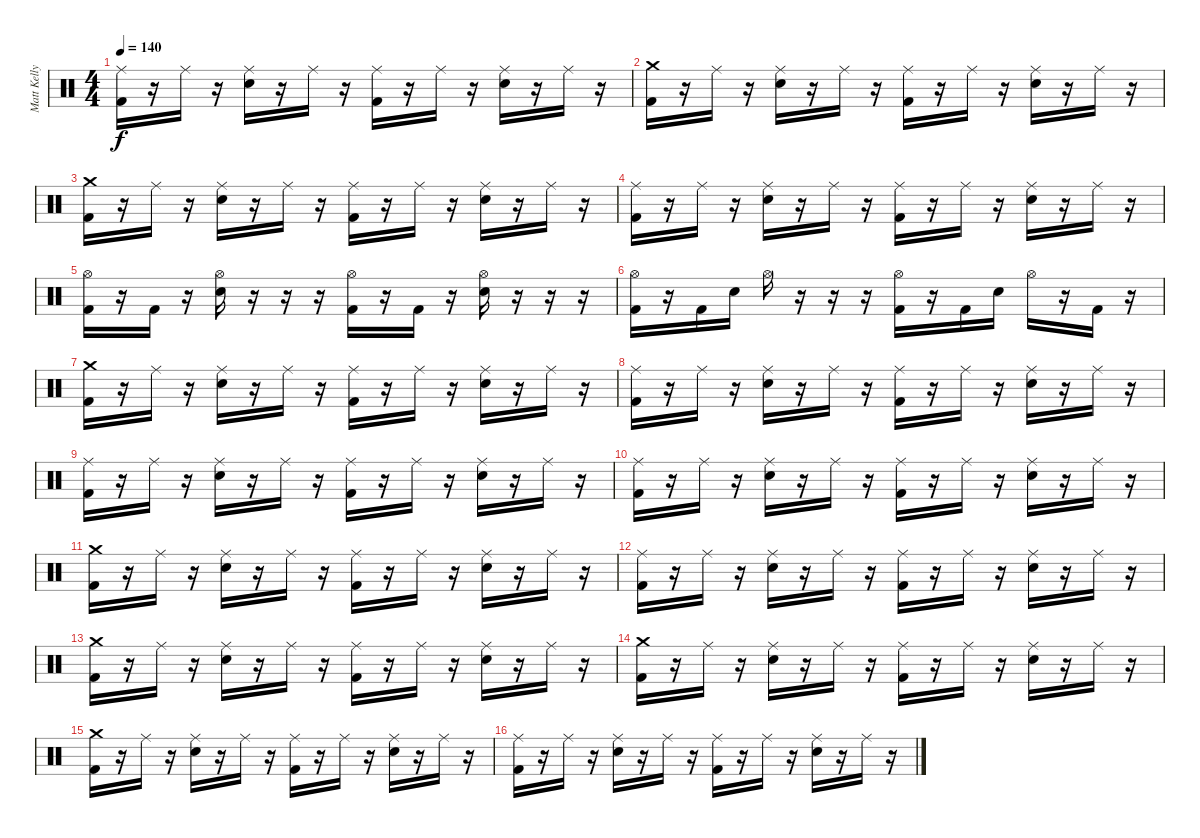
\track ("Matt Kelly" "Matt Kelly") {instrument percussion}
\staff {score}
\articulation defaults
\ts (4 4)
\tempo 140
\clef neutral
\ks c
("Ride (middle)" "Kick (hit) 2").16{dy f} r.16 "Ride (middle)".16 r.16 ("Ride (middle)" "Snare (hit) 2").16 r.16 "Ride (middle)".16 r.16 ("Ride (middle)" "Kick (hit) 2").16 r.16 "Ride (middle)".16 r.16 ("Ride (middle)" "Snare (hit) 2").16 r.16 "Ride (middle)".16 r.16 |
("Crash medium (hit)" "Kick (hit) 2").16 r.16 "Ride (middle)".16 r.16 ("Ride (middle)" "Snare (hit) 2").16 r.16 "Ride (middle)".16 r.16 ("Ride (middle)" "Kick (hit) 2").16 r.16 "Ride (middle)".16 r.16 ("Ride (middle)" "Snare (hit) 2").16 r.16 "Ride (middle)".16 r.16 |
("Crash medium (hit)" "Kick (hit) 2").16 r.16 "Ride (middle)".16 r.16 ("Ride (middle)" "Snare (hit) 2").16 r.16 "Ride (middle)".16 r.16 ("Ride (middle)" "Kick (hit) 2").16 r.16 "Ride (middle)".16 r.16 ("Ride (middle)" "Snare (hit) 2").16 r.16 "Ride (middle)".16 r.16 |
("Ride (middle)" "Kick (hit) 2").16 r.16 "Ride (middle)".16 r.16 ("Ride (middle)" "Snare (hit) 2").16 r.16 "Ride (middle)".16 r.16 ("Ride (middle)" "Kick (hit) 2").16 r.16 "Ride (middle)".16 r.16 ("Ride (middle)" "Snare (hit) 2").16 r.16 "Ride (middle)".16 r.16 |
("Hi-Hat (open)" "Kick (hit) 2").16 r.16 "Kick (hit) 2".16 r.16 ("Hi-Hat (open)" "Snare (hit) 2").16 r.16 r.16 r.16 ("Hi-Hat (open)" "Kick (hit) 2").16 r.16 "Kick (hit) 2".16 r.16 ("Hi-Hat (open)" "Snare (hit) 2").16 r.16 r.16 r.16 |
("Hi-Hat (open)" "Kick (hit) 2").16 r.16 "Kick (hit) 2".16 "Snare (hit) 2".16 "Hi-Hat (open)".16 r.16 r.16 r.16 ("Hi-Hat (open)" "Kick (hit) 2").16 r.16 "Kick (hit) 2".16 "Snare (hit) 2".16 "Hi-Hat (open)".16 r.16 "Kick (hit) 2".16 r.16 |
("Crash medium (hit)" "Kick (hit) 2").16 r.16 "Ride (middle)".16 r.16 ("Ride (middle)" "Snare (hit) 2").16 r.16 "Ride (middle)".16 r.16 ("Ride (middle)" "Kick (hit) 2").16 r.16 "Ride (middle)".16 r.16 ("Ride (middle)" "Snare (hit) 2").16 r.16 "Ride (middle)".16 r.16 |
("Ride (middle)" "Kick (hit) 2").16 r.16 "Ride (middle)".16 r.16 ("Ride (middle)" "Snare (hit) 2").16 r.16 "Ride (middle)".16 r.16 ("Ride (middle)" "Kick (hit) 2").16 r.16 "Ride (middle)".16 r.16 ("Ride (middle)" "Snare (hit) 2").16 r.16 "Ride (middle)".16 r.16 |
("Ride (middle)" "Kick (hit) 2").16 r.16 "Ride (middle)".16 r.16 ("Ride (middle)" "Snare (hit) 2").16 r.16 "Ride (middle)".16 r.16 ("Ride (middle)" "Kick (hit) 2").16 r.16 "Ride (middle)".16 r.16 ("Ride (middle)" "Snare (hit) 2").16 r.16 "Ride (middle)".16 r.16 |
("Ride (middle)" "Kick (hit) 2").16 r.16 "Ride (middle)".16 r.16 ("Ride (middle)" "Snare (hit) 2").16 r.16 "Ride (middle)".16 r.16 ("Ride (middle)" "Kick (hit) 2").16 r.16 "Ride (middle)".16 r.16 ("Ride (middle)" "Snare (hit) 2").16 r.16 "Ride (middle)".16 r.16 |
("Crash medium (hit)" "Kick (hit) 2").16 r.16 "Ride (middle)".16 r.16 ("Ride (middle)" "Snare (hit) 2").16 r.16 "Ride (middle)".16 r.16 ("Ride (middle)" "Kick (hit) 2").16 r.16 "Ride (middle)".16 r.16 ("Ride (middle)" "Snare (hit) 2").16 r.16 "Ride (middle)".16 r.16 |
("Ride (middle)" "Kick (hit) 2").16 r.16 "Ride (middle)".16 r.16 ("Ride (middle)" "Snare (hit) 2").16 r.16 "Ride (middle)".16 r.16 ("Ride (middle)" "Kick (hit) 2").16 r.16 "Ride (middle)".16 r.16 ("Ride (middle)" "Snare (hit) 2").16 r.16 "Ride (middle)".16 r.16 |
("Crash medium (hit)" "Kick (hit) 2").16 r.16 "Ride (middle)".16 r.16 ("Ride (middle)" "Snare (hit) 2").16 r.16 "Ride (middle)".16 r.16 ("Ride (middle)" "Kick (hit) 2").16 r.16 "Ride (middle)".16 r.16 ("Ride (middle)" "Snare (hit) 2").16 r.16 "Ride (middle)".16 r.16 |
("Crash medium (hit)" "Kick (hit) 2").16 r.16 "Ride (middle)".16 r.16 ("Ride (middle)" "Snare (hit) 2").16 r.16 "Ride (middle)".16 r.16 ("Ride (middle)" "Kick (hit) 2").16 r.16 "Ride (middle)".16 r.16 ("Ride (middle)" "Snare (hit) 2").16 r.16 "Ride (middle)".16 r.16 |
("Crash medium (hit)" "Kick (hit) 2").16 r.16 "Ride (middle)".16 r.16 ("Ride (middle)" "Snare (hit) 2").16 r.16 "Ride (middle)".16 r.16 ("Ride (middle)" "Kick (hit) 2").16 r.16 "Ride (middle)".16 r.16 ("Ride (middle)" "Snare (hit) 2").16 r.16 "Ride (middle)".16 r.16 |
("Ride (middle)" "Kick (hit) 2").16 r.16 "Ride (middle)".16 r.16 ("Ride (middle)" "Snare (hit) 2").16 r.16 "Ride (middle)".16 r.16 ("Ride (middle)" "Kick (hit) 2").16 r.16 "Ride (middle)".16 r.16 ("Ride (middle)" "Snare (hit) 2").16 r.16 "Ride (middle)".16 r.16
